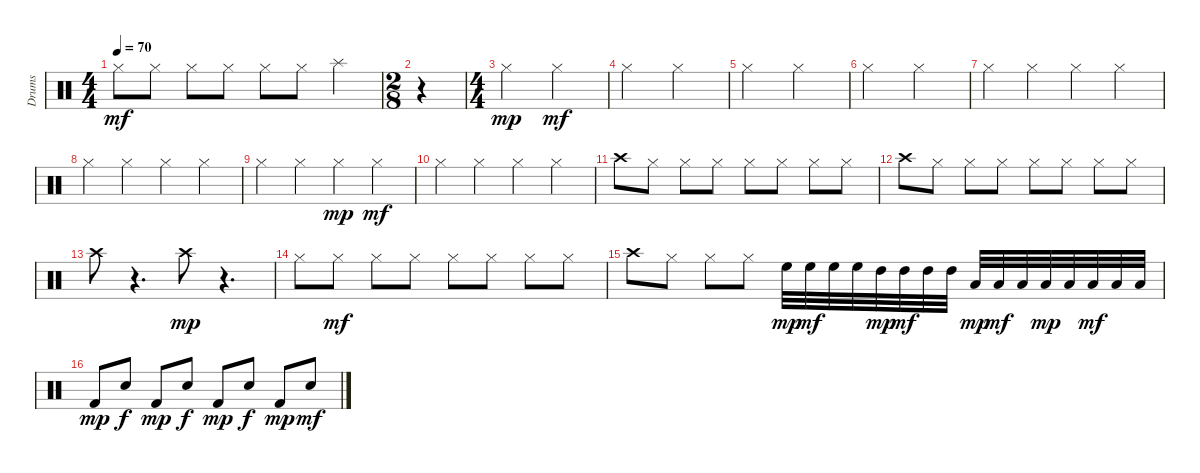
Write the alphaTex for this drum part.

\track ("Drums" "Drums") {instrument percussion}
\staff {score}
\articulation defaults
\ts (4 4)
\tempo 70
\clef neutral
\ks c "Hi-Hat (closed)".8{dy mf} "Hi-Hat (closed)".8 "Hi-Hat (closed)".8 "Hi-Hat (closed)".8 "Hi-Hat (closed)".8 "Hi-Hat (closed)".8 "Splash (hit)".4
|
\ts (2 8)
r.4 |
\ts (4 4)
"Hi-Hat (closed)".2{dy mp} "Hi-Hat (closed)".2{dy mf} |
"Hi-Hat (closed)".2 "Hi-Hat (closed)".2 |
"Hi-Hat (closed)".2 "Hi-Hat (closed)".2 |
"Hi-Hat (closed)".2 "Hi-Hat (closed)".2 |
"Hi-Hat (closed)".4 "Hi-Hat (closed)".4 "Hi-Hat (closed)".4 "Hi-Hat (closed)".4 |
"Hi-Hat (closed)".4 "Hi-Hat (closed)".4 "Hi-Hat (closed)".4 "Hi-Hat (closed)".4 |
"Hi-Hat (closed)".4 "Hi-Hat (closed)".4 "Hi-Hat (closed)".4{dy mp} "Hi-Hat (closed)".4{dy mf} |
"Hi-Hat (closed)".4 "Hi-Hat (closed)".4 "Hi-Hat (closed)".4 "Hi-Hat (closed)".4 |
"Crash high (hit)".8 "Hi-Hat (closed)".8 "Hi-Hat (closed)".8 "Hi-Hat (closed)".8 "Hi-Hat (closed)".8 "Hi-Hat (closed)".8 "Hi-Hat (closed)".8 "Hi-Hat (closed)".8 |
"Crash high (hit)".8 "Hi-Hat (closed)".8 "Hi-Hat (closed)".8 "Hi-Hat (closed)".8 "Hi-Hat (closed)".8 "Hi-Hat (closed)".8 "Hi-Hat (closed)".8 "Hi-Hat (closed)".8 |
"Crash high (hit)".8 r.4{d} "Crash high (hit)".8{dy mp} r.4{d} |
"Hi-Hat (closed)".8 "Hi-Hat (closed)".8{dy mf} "Hi-Hat (closed)".8 "Hi-Hat (closed)".8 "Hi-Hat (closed)".8 "Hi-Hat (closed)".8 "Hi-Hat (closed)".8 "Hi-Hat (closed)".8 |
"Crash high (hit)".8 "Hi-Hat (closed)".8 "Hi-Hat (closed)".8 "Hi-Hat (closed)".8 "High Floor Tom (hit)".32{dy mp} "High Floor Tom (hit)".32{dy mf} "High Floor Tom (hit)".32 "High Floor Tom (hit)".32 "High Tom (hit)".32{dy mp} "High Tom (hit)".32{dy mf} "High Tom (hit)".32 "High Tom (hit)".32 "Low Tom (hit)".32{dy mp} "Low Tom (hit)".32{dy mf} "Low Tom (hit)".32 "Low Tom (hit)".32{dy mp} "Low Floor Tom (hit)".32 "Low Floor Tom (hit)".32{dy mf} "Low Floor Tom (hit)".32 "Low Floor Tom (hit)".32 |
"Kick (hit) 2".8{dy mp} "Snare (hit) 2".8{dy f} "Kick (hit) 2".8{dy mp} "Snare (hit) 2".8{dy f} "Kick (hit) 2".8{dy mp} "Snare (hit) 2".8{dy f} "Kick (hit) 2".8{dy mp} "Snare (hit) 2".8{dy mf}
